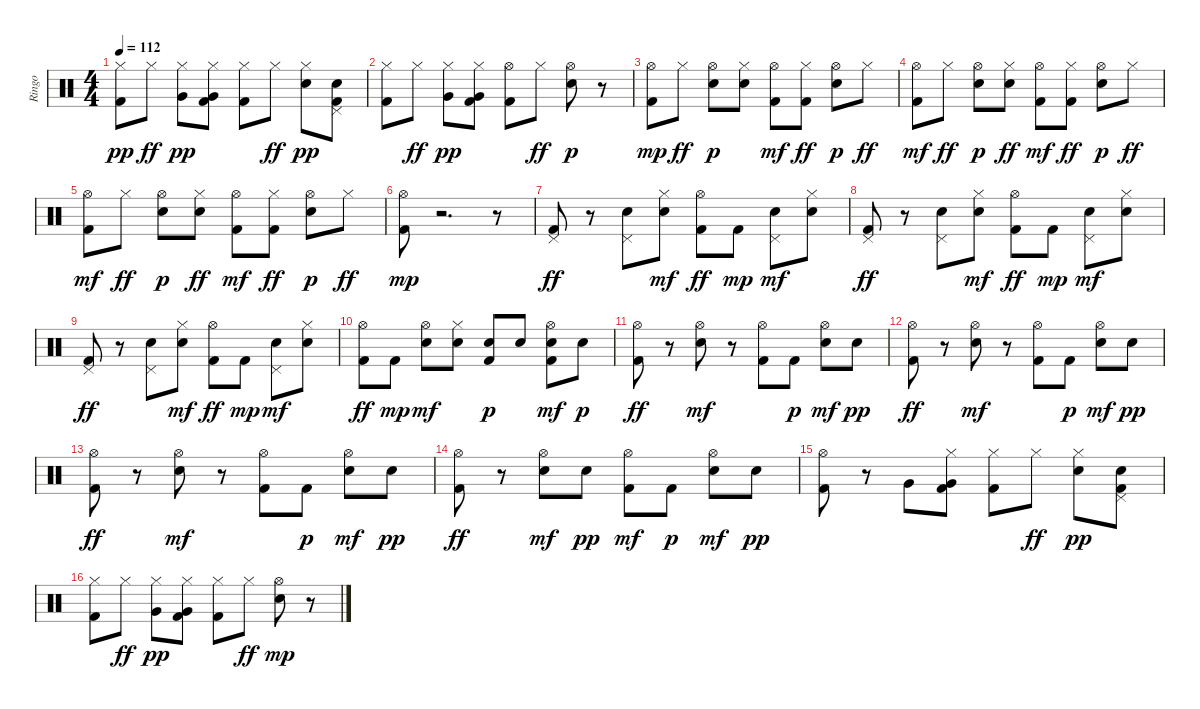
\track ("Ringo" "Ringo") {instrument percussion}
\staff {score}
\articulation defaults
\ts (4 4)
\tempo 112
\clef neutral
\ks c
("Hi-Hat (closed)" "Kick (hit) 2").8{dy pp} "Hi-Hat (closed)".8{dy ff} ("Hi-Hat (closed)" "Very Low Tom (hit)").8{dy pp} ("Hi-Hat (closed)" "Very Low Tom (hit)" "Kick (hit) 2").8 ("Hi-Hat (closed)" "Kick (hit) 2").8 "Hi-Hat (closed)".8{dy ff} ("Hi-Hat (closed)" "Snare (hit) 2").8{dy pp} ("Pedal Hi-Hat (hit)" "Snare (hit) 2" "Kick (hit) 2").8 |
("Hi-Hat (closed)" "Kick (hit) 2").8 "Hi-Hat (closed)".8{dy ff} ("Hi-Hat (closed)" "Very Low Tom (hit)").8{dy pp} ("Hi-Hat (closed)" "Very Low Tom (hit)" "Kick (hit) 2").8 ("Hi-Hat (open)" "Kick (hit) 2").8 "Hi-Hat (closed)".8{dy ff} ("Hi-Hat (open)" "Snare (hit) 2").8{dy p} r.8 |
("Hi-Hat (open)" "Kick (hit) 2").8{dy mp} "Hi-Hat (closed)".8{dy ff} ("Hi-Hat (open)" "Snare (hit) 2").8{dy p} ("Hi-Hat (closed)" "Snare (hit) 2").8 ("Kick (hit) 2" "Hi-Hat (open)").8{dy mf} ("Kick (hit) 2" "Hi-Hat (closed)").8{dy ff} ("Hi-Hat (open)" "Snare (hit) 2").8{dy p} "Hi-Hat (closed)".8{dy ff} |
("Kick (hit) 2" "Hi-Hat (open)").8{dy mf} "Hi-Hat (closed)".8{dy ff} ("Hi-Hat (open)" "Snare (hit) 2").8{dy p} ("Snare (hit) 2" "Hi-Hat (closed)").8{dy ff} ("Kick (hit) 2" "Hi-Hat (open)").8{dy mf} ("Kick (hit) 2" "Hi-Hat (closed)").8{dy ff} ("Hi-Hat (open)" "Snare (hit) 2").8{dy p} "Hi-Hat (closed)".8{dy ff} |
("Kick (hit) 2" "Hi-Hat (open)").8{dy mf} "Hi-Hat (closed)".8{dy ff} ("Hi-Hat (open)" "Snare (hit) 2").8{dy p} ("Snare (hit) 2" "Hi-Hat (closed)").8{dy ff} ("Kick (hit) 2" "Hi-Hat (open)").8{dy mf} ("Kick (hit) 2" "Hi-Hat (closed)").8{dy ff} ("Hi-Hat (open)" "Snare (hit) 2").8{dy p} "Hi-Hat (closed)".8{dy ff} |
("Hi-Hat (open)" "Kick (hit) 2").8{dy mp} r.2{d} r.8 |
("Kick (hit) 2" "Pedal Hi-Hat (hit)").8{dy ff} r.8 ("Snare (hit) 2" "Pedal Hi-Hat (hit)").8 ("Snare (hit) 2" "Hi-Hat (closed)").8{dy mf} ("Kick (hit) 2" "Hi-Hat (open)").8{dy ff} "Kick (hit) 2".8{dy mp} ("Snare (hit) 2" "Pedal Hi-Hat (hit)").8{dy mf} ("Snare (hit) 2" "Hi-Hat (closed)").8 |
("Kick (hit) 2" "Pedal Hi-Hat (hit)").8{dy ff} r.8 ("Snare (hit) 2" "Pedal Hi-Hat (hit)").8 ("Snare (hit) 2" "Hi-Hat (closed)").8{dy mf} ("Kick (hit) 2" "Hi-Hat (open)").8{dy ff} "Kick (hit) 2".8{dy mp} ("Snare (hit) 2" "Pedal Hi-Hat (hit)").8{dy mf} ("Snare (hit) 2" "Hi-Hat (closed)").8 |
("Kick (hit) 2" "Pedal Hi-Hat (hit)").8{dy ff} r.8 ("Snare (hit) 2" "Pedal Hi-Hat (hit)").8 ("Snare (hit) 2" "Hi-Hat (closed)").8{dy mf} ("Kick (hit) 2" "Hi-Hat (open)").8{dy ff} "Kick (hit) 2".8{dy mp} ("Snare (hit) 2" "Pedal Hi-Hat (hit)").8{dy mf} ("Snare (hit) 2" "Hi-Hat (closed)").8 |
("Kick (hit) 2" "Hi-Hat (open)").8{dy ff} "Kick (hit) 2".8{dy mp} ("Snare (hit) 2" "Hi-Hat (open)").8{dy mf} ("Snare (hit) 2" "Hi-Hat (closed)").8 ("Kick (hit) 2" "Snare (hit) 2").8{dy p} "Snare (hit) 2".8 ("Kick (hit) 2" "Snare (hit) 2" "Hi-Hat (open)").8{dy mf} "Snare (hit) 2".8{dy p} |
("Kick (hit) 2" "Hi-Hat (open)").8{dy ff} r.8 ("Snare (hit) 2" "Hi-Hat (open)").8{dy mf} r.8 ("Kick (hit) 2" "Hi-Hat (open)").8 "Kick (hit) 2".8{dy p} ("Snare (hit) 2" "Hi-Hat (open)").8{dy mf} "Snare (hit) 2".8{dy pp} |
("Kick (hit) 2" "Hi-Hat (open)").8{dy ff} r.8 ("Snare (hit) 2" "Hi-Hat (open)").8{dy mf} r.8 ("Kick (hit) 2" "Hi-Hat (open)").8 "Kick (hit) 2".8{dy p} ("Snare (hit) 2" "Hi-Hat (open)").8{dy mf} "Snare (hit) 2".8{dy pp} |
("Kick (hit) 2" "Hi-Hat (open)").8{dy ff} r.8 ("Snare (hit) 2" "Hi-Hat (open)").8{dy mf} r.8 ("Kick (hit) 2" "Hi-Hat (open)").8 "Kick (hit) 2".8{dy p} ("Snare (hit) 2" "Hi-Hat (open)").8{dy mf} "Snare (hit) 2".8{dy pp} |
("Kick (hit) 2" "Hi-Hat (open)").8{dy ff} r.8 ("Snare (hit) 2" "Hi-Hat (open)").8{dy mf} "Snare (hit) 2".8{dy pp} ("Kick (hit) 2" "Hi-Hat (open)").8{dy mf} "Kick (hit) 2".8{dy p} ("Snare (hit) 2" "Hi-Hat (open)").8{dy mf} "Snare (hit) 2".8{dy pp} |
("Hi-Hat (open)" "Kick (hit) 2").8 r.8 "Very Low Tom (hit)".8 ("Hi-Hat (closed)" "Very Low Tom (hit)" "Kick (hit) 2").8 ("Hi-Hat (closed)" "Kick (hit) 2").8 "Hi-Hat (closed)".8{dy ff} ("Hi-Hat (closed)" "Snare (hit) 2").8{dy pp} ("Pedal Hi-Hat (hit)" "Snare (hit) 2" "Kick (hit) 2").8 |
("Hi-Hat (closed)" "Kick (hit) 2").8 "Hi-Hat (closed)".8{dy ff} ("Hi-Hat (closed)" "Very Low Tom (hit)").8{dy pp} ("Hi-Hat (closed)" "Very Low Tom (hit)" "Kick (hit) 2").8 ("Hi-Hat (closed)" "Kick (hit) 2").8 "Hi-Hat (closed)".8{dy ff} ("Hi-Hat (open)" "Snare (hit) 2").8{dy mp} r.8
